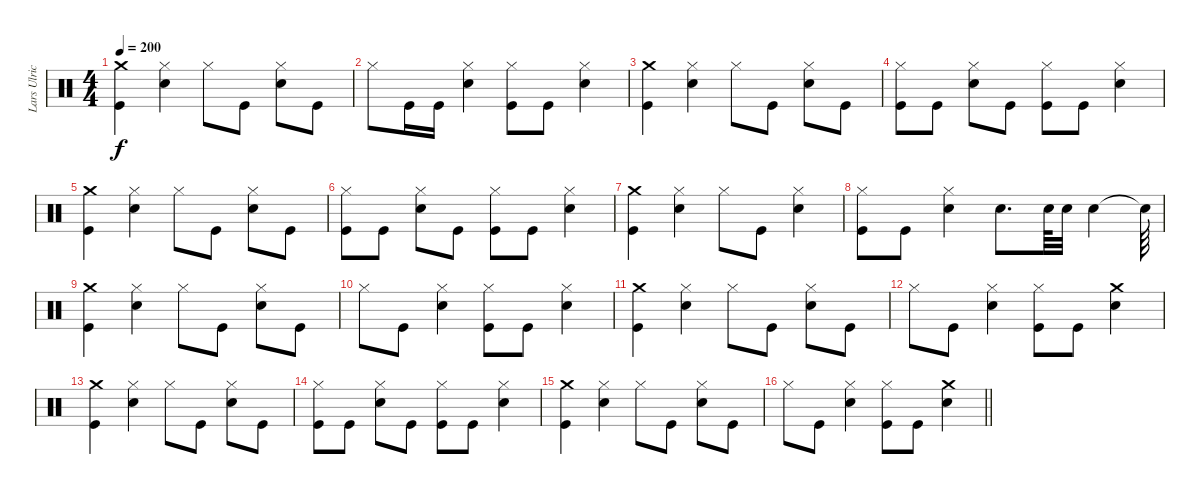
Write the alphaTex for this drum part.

\track ("Lars Ulrich (Drums)" "Lars Ulric") {instrument percussion}
\staff {score}
\articulation defaults
\ts (4 4)
\tempo 200
\clef neutral
\ks c
("Kick (hit)" "Crash medium (hit)").4{dy f} ("Hi-Hat (closed)" "Snare (hit) 2").4 "Hi-Hat (closed)".8 "Kick (hit)".8 ("Snare (hit) 2" "Hi-Hat (closed)").8 "Kick (hit)".8 |
"Hi-Hat (closed)".8 "Kick (hit)".16 "Kick (hit)".16 ("Snare (hit) 2" "Hi-Hat (closed)").4 ("Hi-Hat (closed)" "Kick (hit)").8 "Kick (hit)".8 ("Snare (hit) 2" "Hi-Hat (closed)").4 |
("Kick (hit)" "Crash medium (hit)").4 ("Hi-Hat (closed)" "Snare (hit) 2").4 "Hi-Hat (closed)".8 "Kick (hit)".8 ("Snare (hit) 2" "Hi-Hat (closed)").8 "Kick (hit)".8 |
("Hi-Hat (closed)" "Kick (hit)").8 "Kick (hit)".8 ("Snare (hit) 2" "Hi-Hat (closed)").8 "Kick (hit)".8 ("Hi-Hat (closed)" "Kick (hit)").8 "Kick (hit)".8 ("Snare (hit) 2" "Hi-Hat (closed)").4 |
("Kick (hit)" "Crash medium (hit)").4 ("Hi-Hat (closed)" "Snare (hit) 2").4 "Hi-Hat (closed)".8 "Kick (hit)".8 ("Snare (hit) 2" "Hi-Hat (closed)").8 "Kick (hit)".8 |
("Hi-Hat (closed)" "Kick (hit)").8 "Kick (hit)".8 ("Snare (hit) 2" "Hi-Hat (closed)").8 "Kick (hit)".8 ("Hi-Hat (closed)" "Kick (hit)").8 "Kick (hit)".8 ("Snare (hit) 2" "Hi-Hat (closed)").4 |
("Kick (hit)" "Crash medium (hit)").4 ("Snare (hit) 2" "Hi-Hat (closed)").4 "Hi-Hat (closed)".8 "Kick (hit)".8 ("Snare (hit) 2" "Hi-Hat (closed)").4 |
("Hi-Hat (closed)" "Kick (hit)").8 "Kick (hit)".8 ("Snare (hit) 2" "Hi-Hat (closed)").4 "Snare (hit) 2".8{d} "Snare (hit) 2".64 "Snare (hit) 2".32 "Snare (hit) 2".4 "Snare (hit)"{t}.64 |
("Kick (hit)" "Crash medium (hit)").4 ("Hi-Hat (closed)" "Snare (hit) 2").4 "Hi-Hat (closed)".8 "Kick (hit)".8 ("Snare (hit) 2" "Hi-Hat (closed)").8 "Kick (hit)".8 |
"Hi-Hat (closed)".8 "Kick (hit)".8 ("Snare (hit) 2" "Hi-Hat (closed)").4 ("Hi-Hat (closed)" "Kick (hit)").8 "Kick (hit)".8 ("Snare (hit) 2" "Hi-Hat (closed)").4 |
("Kick (hit)" "Crash medium (hit)").4 ("Hi-Hat (closed)" "Snare (hit) 2").4 "Hi-Hat (closed)".8 "Kick (hit)".8 ("Snare (hit) 2" "Hi-Hat (closed)").8 "Kick (hit)".8 |
"Hi-Hat (closed)".8 "Kick (hit)".8 ("Snare (hit) 2" "Hi-Hat (closed)").4 ("Hi-Hat (closed)" "Kick (hit)").8 "Kick (hit)".8 ("Crash medium (hit)" "Snare (hit) 2").4 |
("Kick (hit)" "Crash medium (hit)").4 ("Hi-Hat (closed)" "Snare (hit) 2").4 "Hi-Hat (closed)".8 "Kick (hit)".8 ("Snare (hit) 2" "Hi-Hat (closed)").8 "Kick (hit)".8 |
("Hi-Hat (closed)" "Kick (hit)").8 "Kick (hit)".8 ("Snare (hit) 2" "Hi-Hat (closed)").8 "Kick (hit)".8 ("Hi-Hat (closed)" "Kick (hit)").8 "Kick (hit)".8 ("Snare (hit) 2" "Hi-Hat (closed)").4 |
("Kick (hit)" "Crash medium (hit)").4 ("Hi-Hat (closed)" "Snare (hit) 2").4 "Hi-Hat (closed)".8 "Kick (hit)".8 ("Snare (hit) 2" "Hi-Hat (closed)").8 "Kick (hit)".8 |
\barLineRight lightlight "Hi-Hat (closed)".8 "Kick (hit)".8
("Snare (hit) 2" "Hi-Hat (closed)").4 ("Hi-Hat (closed)" "Kick (hit)").8 "Kick (hit)".8 ("Crash medium (hit)" "Snare (hit) 2").4
